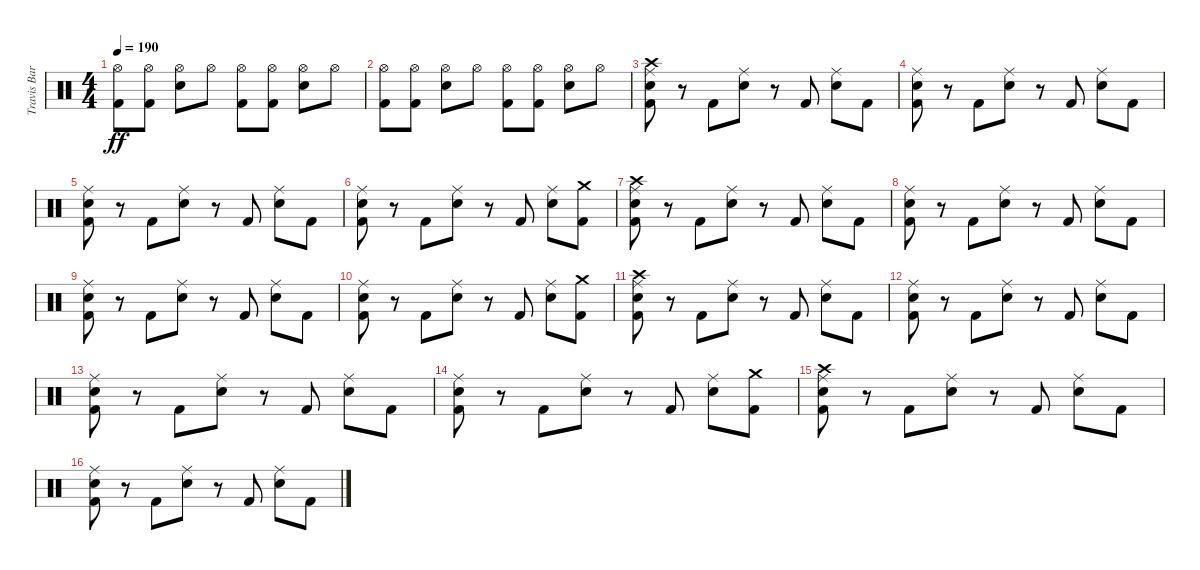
\track ("Travis Barker - Drums" "Travis Bar") {instrument percussion}
\staff {score}
\articulation defaults
\ts (4 4)
\tempo 190
\clef neutral
\ks c
("Hi-Hat (open)" "Kick (hit) 2").8{dy ff} ("Hi-Hat (open)" "Kick (hit) 2").8 ("Hi-Hat (open)" "Electric Snare (hit)").8 "Hi-Hat (open)".8 ("Hi-Hat (open)" "Kick (hit) 2").8 ("Hi-Hat (open)" "Kick (hit) 2").8 ("Hi-Hat (open)" "Electric Snare (hit)").8 "Hi-Hat (open)".8 |
("Hi-Hat (open)" "Kick (hit) 2").8 ("Hi-Hat (open)" "Kick (hit) 2").8 ("Hi-Hat (open)" "Electric Snare (hit)").8 "Hi-Hat (open)".8 ("Hi-Hat (open)" "Kick (hit) 2").8 ("Hi-Hat (open)" "Kick (hit) 2").8 ("Hi-Hat (open)" "Electric Snare (hit)").8 "Hi-Hat (open)".8 |
("Crash high (hit)" "Ride (middle)" "Electric Snare (hit)" "Kick (hit) 2").8 r.8 "Kick (hit) 2".8 ("Ride (middle)" "Electric Snare (hit)").8 r.8 "Kick (hit) 2".8 ("Ride (middle)" "Electric Snare (hit)").8 "Kick (hit) 2".8 |
("Ride (middle)" "Electric Snare (hit)" "Kick (hit) 2").8 r.8 "Kick (hit) 2".8 ("Ride (middle)" "Electric Snare (hit)").8 r.8 "Kick (hit) 2".8 ("Ride (middle)" "Electric Snare (hit)").8 "Kick (hit) 2".8 |
("Ride (middle)" "Electric Snare (hit)" "Kick (hit) 2").8 r.8 "Kick (hit) 2".8 ("Ride (middle)" "Electric Snare (hit)").8 r.8 "Kick (hit) 2".8 ("Ride (middle)" "Electric Snare (hit)").8 "Kick (hit) 2".8 |
("Ride (middle)" "Electric Snare (hit)" "Kick (hit) 2").8 r.8 "Kick (hit) 2".8 ("Ride (middle)" "Electric Snare (hit)").8 r.8 "Kick (hit) 2".8 ("Ride (middle)" "Electric Snare (hit)").8 ("Crash medium (hit)" "Kick (hit) 2").8 |
("Crash high (hit)" "Ride (middle)" "Electric Snare (hit)" "Kick (hit) 2").8 r.8 "Kick (hit) 2".8 ("Ride (middle)" "Electric Snare (hit)").8 r.8 "Kick (hit) 2".8 ("Ride (middle)" "Electric Snare (hit)").8 "Kick (hit) 2".8 |
("Ride (middle)" "Electric Snare (hit)" "Kick (hit) 2").8 r.8 "Kick (hit) 2".8 ("Ride (middle)" "Electric Snare (hit)").8 r.8 "Kick (hit) 2".8 ("Ride (middle)" "Electric Snare (hit)").8 "Kick (hit) 2".8 |
("Ride (middle)" "Electric Snare (hit)" "Kick (hit) 2").8 r.8 "Kick (hit) 2".8 ("Ride (middle)" "Electric Snare (hit)").8 r.8 "Kick (hit) 2".8 ("Ride (middle)" "Electric Snare (hit)").8 "Kick (hit) 2".8 |
("Ride (middle)" "Electric Snare (hit)" "Kick (hit) 2").8 r.8 "Kick (hit) 2".8 ("Ride (middle)" "Electric Snare (hit)").8 r.8 "Kick (hit) 2".8 ("Ride (middle)" "Electric Snare (hit)").8 ("Crash medium (hit)" "Kick (hit) 2").8 |
("Crash high (hit)" "Ride (middle)" "Electric Snare (hit)" "Kick (hit) 2").8 r.8 "Kick (hit) 2".8 ("Ride (middle)" "Electric Snare (hit)").8 r.8 "Kick (hit) 2".8 ("Ride (middle)" "Electric Snare (hit)").8 "Kick (hit) 2".8 |
("Ride (middle)" "Electric Snare (hit)" "Kick (hit) 2").8 r.8 "Kick (hit) 2".8 ("Ride (middle)" "Electric Snare (hit)").8 r.8 "Kick (hit) 2".8 ("Ride (middle)" "Electric Snare (hit)").8 "Kick (hit) 2".8 |
("Ride (middle)" "Electric Snare (hit)" "Kick (hit) 2").8 r.8 "Kick (hit) 2".8 ("Ride (middle)" "Electric Snare (hit)").8 r.8 "Kick (hit) 2".8 ("Ride (middle)" "Electric Snare (hit)").8 "Kick (hit) 2".8 |
("Ride (middle)" "Electric Snare (hit)" "Kick (hit) 2").8 r.8 "Kick (hit) 2".8 ("Ride (middle)" "Electric Snare (hit)").8 r.8 "Kick (hit) 2".8 ("Ride (middle)" "Electric Snare (hit)").8 ("Crash medium (hit)" "Kick (hit) 2").8 |
("Crash high (hit)" "Ride (middle)" "Electric Snare (hit)" "Kick (hit) 2").8 r.8 "Kick (hit) 2".8 ("Ride (middle)" "Electric Snare (hit)").8 r.8 "Kick (hit) 2".8 ("Ride (middle)" "Electric Snare (hit)").8 "Kick (hit) 2".8 |
("Ride (middle)" "Electric Snare (hit)" "Kick (hit) 2").8 r.8 "Kick (hit) 2".8 ("Ride (middle)" "Electric Snare (hit)").8 r.8 "Kick (hit) 2".8 ("Ride (middle)" "Electric Snare (hit)").8 "Kick (hit) 2".8
